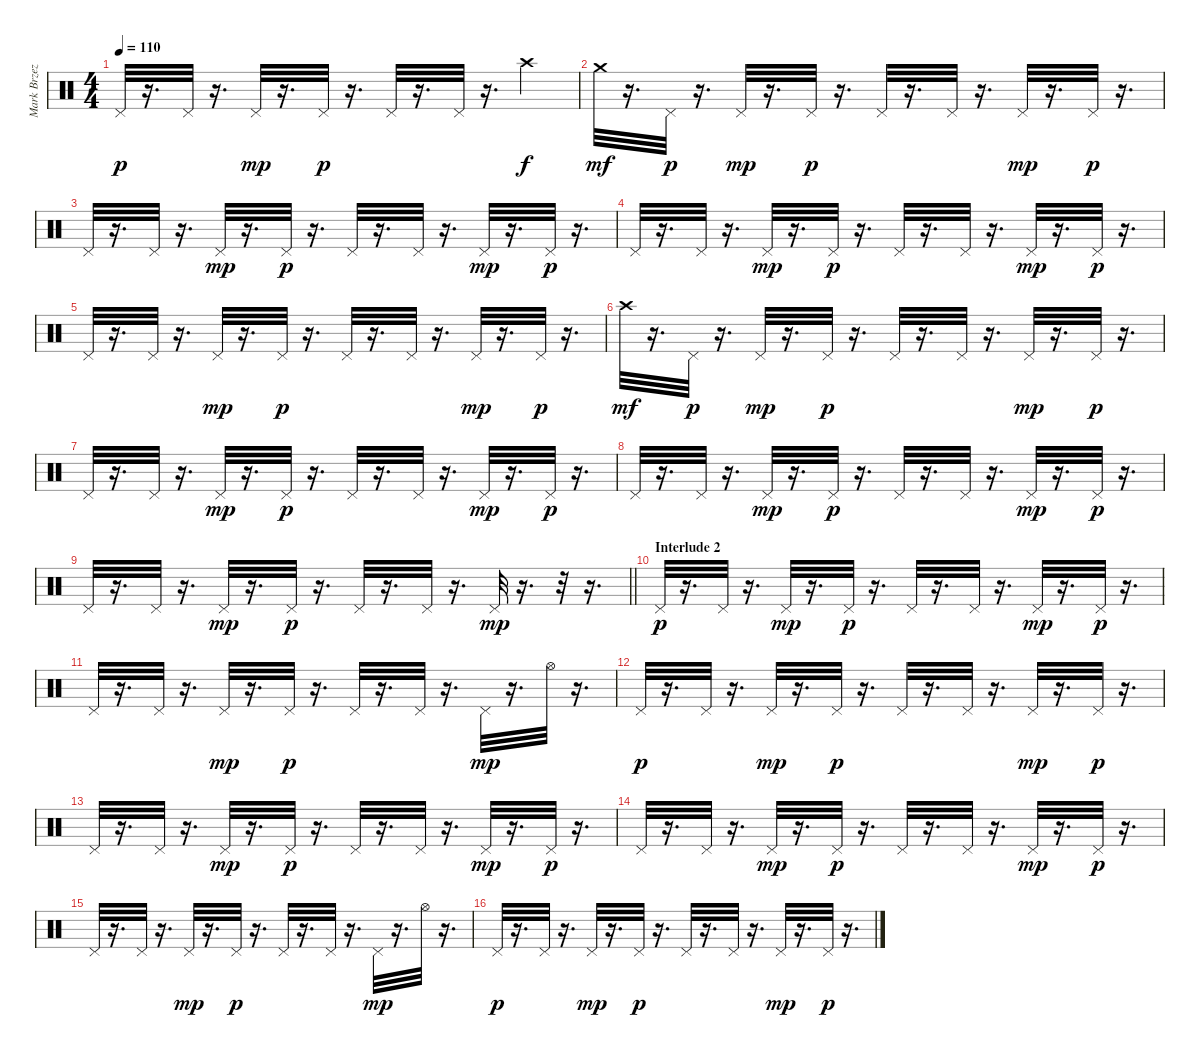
\track ("Mark Brzezicki - Cymbal (Crash, Open & C" "Mark Brzez") {instrument percussion}
\staff {score}
\articulation defaults
\ts (4 4)
\tempo 110
\clef neutral
\ks c "Pedal Hi-Hat (hit)".32{dy p}
r.16{d} "Pedal Hi-Hat (hit)".32 r.16{d} "Pedal Hi-Hat (hit)".32{dy mp} r.16{d} "Pedal Hi-Hat (hit)".32{dy p} r.16{d} "Pedal Hi-Hat (hit)".32 r.16{d} "Pedal Hi-Hat (hit)".32 r.16{d} "Crash high (hit)".4{dy f} |
"Crash medium (hit)".32{dy mf} r.16{d} "Pedal Hi-Hat (hit)".32{dy p} r.16{d} "Pedal Hi-Hat (hit)".32{dy mp} r.16{d} "Pedal Hi-Hat (hit)".32{dy p} r.16{d} "Pedal Hi-Hat (hit)".32 r.16{d} "Pedal Hi-Hat (hit)".32 r.16{d} "Pedal Hi-Hat (hit)".32{dy mp} r.16{d} "Pedal Hi-Hat (hit)".32{dy p} r.16{d} |
"Pedal Hi-Hat (hit)".32 r.16{d} "Pedal Hi-Hat (hit)".32 r.16{d} "Pedal Hi-Hat (hit)".32{dy mp} r.16{d} "Pedal Hi-Hat (hit)".32{dy p} r.16{d} "Pedal Hi-Hat (hit)".32 r.16{d} "Pedal Hi-Hat (hit)".32 r.16{d} "Pedal Hi-Hat (hit)".32{dy mp} r.16{d} "Pedal Hi-Hat (hit)".32{dy p} r.16{d} |
"Pedal Hi-Hat (hit)".32 r.16{d} "Pedal Hi-Hat (hit)".32 r.16{d} "Pedal Hi-Hat (hit)".32{dy mp} r.16{d} "Pedal Hi-Hat (hit)".32{dy p} r.16{d} "Pedal Hi-Hat (hit)".32 r.16{d} "Pedal Hi-Hat (hit)".32 r.16{d} "Pedal Hi-Hat (hit)".32{dy mp} r.16{d} "Pedal Hi-Hat (hit)".32{dy p} r.16{d} |
"Pedal Hi-Hat (hit)".32 r.16{d} "Pedal Hi-Hat (hit)".32 r.16{d} "Pedal Hi-Hat (hit)".32{dy mp} r.16{d} "Pedal Hi-Hat (hit)".32{dy p} r.16{d} "Pedal Hi-Hat (hit)".32 r.16{d} "Pedal Hi-Hat (hit)".32 r.16{d} "Pedal Hi-Hat (hit)".32{dy mp} r.16{d} "Pedal Hi-Hat (hit)".32{dy p} r.16{d} |
"Crash high (hit)".32{dy mf} r.16{d} "Pedal Hi-Hat (hit)".32{dy p} r.16{d} "Pedal Hi-Hat (hit)".32{dy mp} r.16{d} "Pedal Hi-Hat (hit)".32{dy p} r.16{d} "Pedal Hi-Hat (hit)".32 r.16{d} "Pedal Hi-Hat (hit)".32 r.16{d} "Pedal Hi-Hat (hit)".32{dy mp} r.16{d} "Pedal Hi-Hat (hit)".32{dy p} r.16{d} |
"Pedal Hi-Hat (hit)".32 r.16{d} "Pedal Hi-Hat (hit)".32 r.16{d} "Pedal Hi-Hat (hit)".32{dy mp} r.16{d} "Pedal Hi-Hat (hit)".32{dy p} r.16{d} "Pedal Hi-Hat (hit)".32 r.16{d} "Pedal Hi-Hat (hit)".32 r.16{d} "Pedal Hi-Hat (hit)".32{dy mp} r.16{d} "Pedal Hi-Hat (hit)".32{dy p} r.16{d} |
"Pedal Hi-Hat (hit)".32 r.16{d} "Pedal Hi-Hat (hit)".32 r.16{d} "Pedal Hi-Hat (hit)".32{dy mp} r.16{d} "Pedal Hi-Hat (hit)".32{dy p} r.16{d} "Pedal Hi-Hat (hit)".32 r.16{d} "Pedal Hi-Hat (hit)".32 r.16{d} "Pedal Hi-Hat (hit)".32{dy mp} r.16{d} "Pedal Hi-Hat (hit)".32{dy p} r.16{d} |
\barLineRight lightlight "Pedal Hi-Hat (hit)".32
r.16{d} "Pedal Hi-Hat (hit)".32 r.16{d} "Pedal Hi-Hat (hit)".32{dy mp} r.16{d} "Pedal Hi-Hat (hit)".32{dy p} r.16{d} "Pedal Hi-Hat (hit)".32 r.16{d} "Pedal Hi-Hat (hit)".32 r.16{d} "Pedal Hi-Hat (hit)".32{dy mp} r.16{d} r.32 r.16{d} |
\section ("" "Interlude 2")
"Pedal Hi-Hat (hit)".32{dy p} r.16{d} "Pedal Hi-Hat (hit)".32 r.16{d} "Pedal Hi-Hat (hit)".32{dy mp} r.16{d} "Pedal Hi-Hat (hit)".32{dy p} r.16{d} "Pedal Hi-Hat (hit)".32 r.16{d} "Pedal Hi-Hat (hit)".32 r.16{d} "Pedal Hi-Hat (hit)".32{dy mp} r.16{d} "Pedal Hi-Hat (hit)".32{dy p} r.16{d} |
"Pedal Hi-Hat (hit)".32 r.16{d} "Pedal Hi-Hat (hit)".32 r.16{d} "Pedal Hi-Hat (hit)".32{dy mp} r.16{d} "Pedal Hi-Hat (hit)".32{dy p} r.16{d} "Pedal Hi-Hat (hit)".32 r.16{d} "Pedal Hi-Hat (hit)".32 r.16{d} "Pedal Hi-Hat (hit)".32{dy mp} r.16{d} "Hi-Hat (open)".32 r.16{d} |
"Pedal Hi-Hat (hit)".32{dy p} r.16{d} "Pedal Hi-Hat (hit)".32 r.16{d} "Pedal Hi-Hat (hit)".32{dy mp} r.16{d} "Pedal Hi-Hat (hit)".32{dy p} r.16{d} "Pedal Hi-Hat (hit)".32 r.16{d} "Pedal Hi-Hat (hit)".32 r.16{d} "Pedal Hi-Hat (hit)".32{dy mp} r.16{d} "Pedal Hi-Hat (hit)".32{dy p} r.16{d} |
"Pedal Hi-Hat (hit)".32 r.16{d} "Pedal Hi-Hat (hit)".32 r.16{d} "Pedal Hi-Hat (hit)".32{dy mp} r.16{d} "Pedal Hi-Hat (hit)".32{dy p} r.16{d} "Pedal Hi-Hat (hit)".32 r.16{d} "Pedal Hi-Hat (hit)".32 r.16{d} "Pedal Hi-Hat (hit)".32{dy mp} r.16{d} "Pedal Hi-Hat (hit)".32{dy p} r.16{d} |
"Pedal Hi-Hat (hit)".32 r.16{d} "Pedal Hi-Hat (hit)".32 r.16{d} "Pedal Hi-Hat (hit)".32{dy mp} r.16{d} "Pedal Hi-Hat (hit)".32{dy p} r.16{d} "Pedal Hi-Hat (hit)".32 r.16{d} "Pedal Hi-Hat (hit)".32 r.16{d} "Pedal Hi-Hat (hit)".32{dy mp} r.16{d} "Pedal Hi-Hat (hit)".32{dy p} r.16{d} |
"Pedal Hi-Hat (hit)".32 r.16{d} "Pedal Hi-Hat (hit)".32 r.16{d} "Pedal Hi-Hat (hit)".32{dy mp} r.16{d} "Pedal Hi-Hat (hit)".32{dy p} r.16{d} "Pedal Hi-Hat (hit)".32 r.16{d} "Pedal Hi-Hat (hit)".32 r.16{d} "Pedal Hi-Hat (hit)".32{dy mp} r.16{d} "Hi-Hat (open)".32 r.16{d} |
"Pedal Hi-Hat (hit)".32{dy p} r.16{d} "Pedal Hi-Hat (hit)".32 r.16{d} "Pedal Hi-Hat (hit)".32{dy mp} r.16{d} "Pedal Hi-Hat (hit)".32{dy p} r.16{d} "Pedal Hi-Hat (hit)".32 r.16{d} "Pedal Hi-Hat (hit)".32 r.16{d} "Pedal Hi-Hat (hit)".32{dy mp} r.16{d} "Pedal Hi-Hat (hit)".32{dy p} r.16{d}
